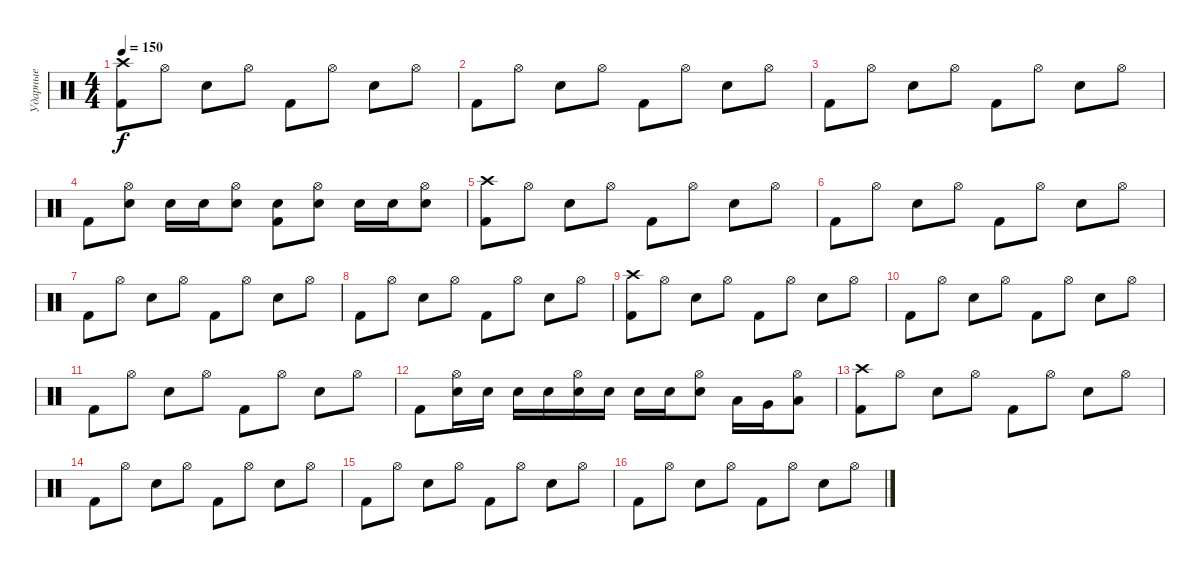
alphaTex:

\track ("Ударные" "Ударные") {instrument percussion}
\staff {score}
\articulation defaults
\ts (4 4)
\tempo 150
\clef neutral
\ks c
("Crash high (hit)" "Kick (hit) 2").8{dy f} "Hi-Hat (open)".8 "Electric Snare (hit)".8 "Hi-Hat (open)".8 "Kick (hit) 2".8 "Hi-Hat (open)".8 "Electric Snare (hit)".8 "Hi-Hat (open)".8 |
"Kick (hit) 2".8 "Hi-Hat (open)".8 "Electric Snare (hit)".8 "Hi-Hat (open)".8 "Kick (hit) 2".8 "Hi-Hat (open)".8 "Electric Snare (hit)".8 "Hi-Hat (open)".8 |
"Kick (hit) 2".8 "Hi-Hat (open)".8 "Electric Snare (hit)".8 "Hi-Hat (open)".8 "Kick (hit) 2".8 "Hi-Hat (open)".8 "Electric Snare (hit)".8 "Hi-Hat (open)".8 |
"Kick (hit) 2".8 ("Hi-Hat (open)" "Electric Snare (hit)").8 "Electric Snare (hit)".16 "Electric Snare (hit)".16 ("Hi-Hat (open)" "Electric Snare (hit)").8 ("Electric Snare (hit)" "Kick (hit) 2").8 ("Hi-Hat (open)" "Electric Snare (hit)").8 "Electric Snare (hit)".16 "Electric Snare (hit)".16 ("Hi-Hat (open)" "Electric Snare (hit)").8 |
("Crash high (hit)" "Kick (hit) 2").8 "Hi-Hat (open)".8 "Electric Snare (hit)".8 "Hi-Hat (open)".8 "Kick (hit) 2".8 "Hi-Hat (open)".8 "Electric Snare (hit)".8 "Hi-Hat (open)".8 |
"Kick (hit) 2".8 "Hi-Hat (open)".8 "Electric Snare (hit)".8 "Hi-Hat (open)".8 "Kick (hit) 2".8 "Hi-Hat (open)".8 "Electric Snare (hit)".8 "Hi-Hat (open)".8 |
"Kick (hit) 2".8 "Hi-Hat (open)".8 "Electric Snare (hit)".8 "Hi-Hat (open)".8 "Kick (hit) 2".8 "Hi-Hat (open)".8 "Electric Snare (hit)".8 "Hi-Hat (open)".8 |
"Kick (hit) 2".8 "Hi-Hat (open)".8 "Electric Snare (hit)".8 "Hi-Hat (open)".8 "Kick (hit) 2".8 "Hi-Hat (open)".8 "Electric Snare (hit)".8 "Hi-Hat (open)".8 |
("Crash high (hit)" "Kick (hit) 2").8 "Hi-Hat (open)".8 "Electric Snare (hit)".8 "Hi-Hat (open)".8 "Kick (hit) 2".8 "Hi-Hat (open)".8 "Electric Snare (hit)".8 "Hi-Hat (open)".8 |
"Kick (hit) 2".8 "Hi-Hat (open)".8 "Electric Snare (hit)".8 "Hi-Hat (open)".8 "Kick (hit) 2".8 "Hi-Hat (open)".8 "Electric Snare (hit)".8 "Hi-Hat (open)".8 |
"Kick (hit) 2".8 "Hi-Hat (open)".8 "Electric Snare (hit)".8 "Hi-Hat (open)".8 "Kick (hit) 2".8 "Hi-Hat (open)".8 "Electric Snare (hit)".8 "Hi-Hat (open)".8 |
"Kick (hit) 2".8 ("Hi-Hat (open)" "Electric Snare (hit)").16 "Electric Snare (hit)".16 "Electric Snare (hit)".16 "Electric Snare (hit)".16 ("Hi-Hat (open)" "Electric Snare (hit)").16 "Electric Snare (hit)".16 "Electric Snare (hit)".16 "Electric Snare (hit)".16 ("Hi-Hat (open)" "Electric Snare (hit)").8 "Low Tom (hit)".16 "Very Low Tom (hit)".16 ("Hi-Hat (open)" "Low Floor Tom (hit)").8 |
("Crash high (hit)" "Kick (hit) 2").8 "Hi-Hat (open)".8 "Electric Snare (hit)".8 "Hi-Hat (open)".8 "Kick (hit) 2".8 "Hi-Hat (open)".8 "Electric Snare (hit)".8 "Hi-Hat (open)".8 |
"Kick (hit) 2".8 "Hi-Hat (open)".8 "Electric Snare (hit)".8 "Hi-Hat (open)".8 "Kick (hit) 2".8 "Hi-Hat (open)".8 "Electric Snare (hit)".8 "Hi-Hat (open)".8 |
"Kick (hit) 2".8 "Hi-Hat (open)".8 "Electric Snare (hit)".8 "Hi-Hat (open)".8 "Kick (hit) 2".8 "Hi-Hat (open)".8 "Electric Snare (hit)".8 "Hi-Hat (open)".8 |
"Kick (hit) 2".8 "Hi-Hat (open)".8 "Electric Snare (hit)".8 "Hi-Hat (open)".8 "Kick (hit) 2".8 "Hi-Hat (open)".8 "Electric Snare (hit)".8 "Hi-Hat (open)".8
